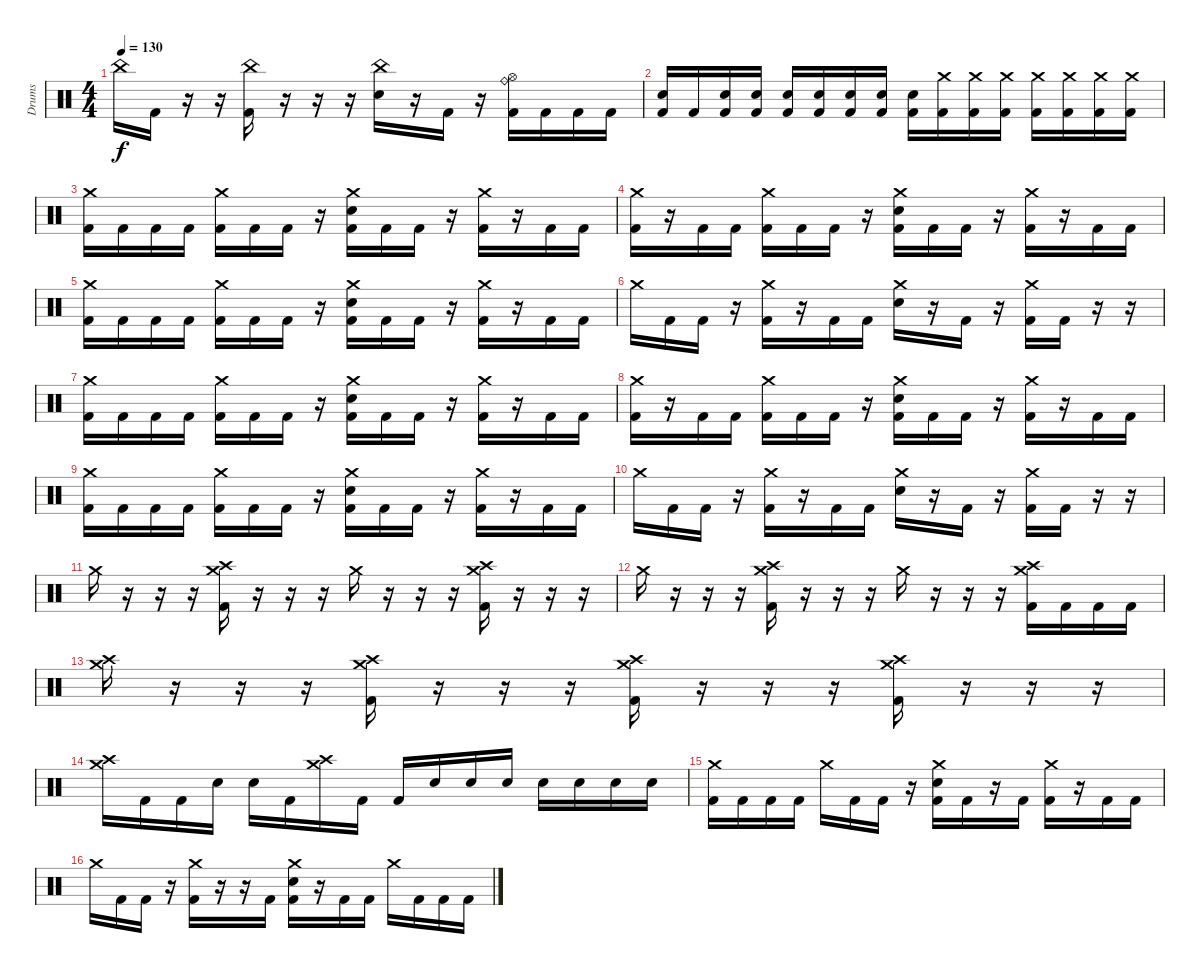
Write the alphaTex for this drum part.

\track ("Drums" "Drums") {instrument percussion}
\staff {score}
\articulation defaults
\ts (4 4)
\tempo 130
\clef neutral
\ks c "China (hit)".16{dy f} "Kick (hit) 2".16
r.16 r.16 ("China (hit)" "Kick (hit) 2").16 r.16 r.16 r.16 ("China (hit)" "Electric Snare (hit)").16 r.16 "Kick (hit) 2".16 r.16 ("Ride (bell)" "Hi-Hat (open)" "Kick (hit) 2").16 "Kick (hit) 2".16 "Kick (hit) 2".16 "Kick (hit) 2".16 |
("Electric Snare (hit)" "Kick (hit) 2").16 "Kick (hit) 2".16 ("Electric Snare (hit)" "Kick (hit) 2").16 ("Electric Snare (hit)" "Kick (hit) 2").16 ("Electric Snare (hit)" "Kick (hit) 2").16 ("Electric Snare (hit)" "Kick (hit) 2").16 ("Electric Snare (hit)" "Kick (hit) 2").16 ("Electric Snare (hit)" "Kick (hit) 2").16 ("Electric Snare (hit)" "Kick (hit) 2").16 ("Crash medium (hit)" "Kick (hit) 2").16 ("Crash medium (hit)" "Kick (hit) 2").16 ("Crash medium (hit)" "Kick (hit) 2").16 ("Crash medium (hit)" "Kick (hit) 2").16 ("Crash medium (hit)" "Kick (hit) 2").16 ("Crash medium (hit)" "Kick (hit) 2").16 ("Crash medium (hit)" "Kick (hit) 2").16 |
("Crash medium (hit)" "Kick (hit) 2").16 "Kick (hit) 2".16 "Kick (hit) 2".16 "Kick (hit) 2".16 ("Crash medium (hit)" "Kick (hit) 2").16 "Kick (hit) 2".16 "Kick (hit) 2".16 r.16 ("Crash medium (hit)" "Electric Snare (hit)" "Kick (hit) 2").16 "Kick (hit) 2".16 "Kick (hit) 2".16 r.16 ("Crash medium (hit)" "Kick (hit) 2").16 r.16 "Kick (hit) 2".16 "Kick (hit) 2".16 |
("Crash medium (hit)" "Kick (hit) 2").16 r.16 "Kick (hit) 2".16 "Kick (hit) 2".16 ("Crash medium (hit)" "Kick (hit) 2").16 "Kick (hit) 2".16 "Kick (hit) 2".16 r.16 ("Crash medium (hit)" "Electric Snare (hit)" "Kick (hit) 2").16 "Kick (hit) 2".16 "Kick (hit) 2".16 r.16 ("Crash medium (hit)" "Kick (hit) 2").16 r.16 "Kick (hit) 2".16 "Kick (hit) 2".16 |
("Crash medium (hit)" "Kick (hit) 2").16 "Kick (hit) 2".16 "Kick (hit) 2".16 "Kick (hit) 2".16 ("Crash medium (hit)" "Kick (hit) 2").16 "Kick (hit) 2".16 "Kick (hit) 2".16 r.16 ("Crash medium (hit)" "Electric Snare (hit)" "Kick (hit) 2").16 "Kick (hit) 2".16 "Kick (hit) 2".16 r.16 ("Crash medium (hit)" "Kick (hit) 2").16 r.16 "Kick (hit) 2".16 "Kick (hit) 2".16 |
"Crash medium (hit)".16 "Kick (hit) 2".16 "Kick (hit) 2".16 r.16 ("Crash medium (hit)" "Kick (hit) 2").16 r.16 "Kick (hit) 2".16 "Kick (hit) 2".16 ("Crash medium (hit)" "Electric Snare (hit)").16 r.16 "Kick (hit) 2".16 r.16 ("Crash medium (hit)" "Kick (hit) 2").16 "Kick (hit) 2".16 r.16 r.16 |
("Crash medium (hit)" "Kick (hit) 2").16 "Kick (hit) 2".16 "Kick (hit) 2".16 "Kick (hit) 2".16 ("Crash medium (hit)" "Kick (hit) 2").16 "Kick (hit) 2".16 "Kick (hit) 2".16 r.16 ("Crash medium (hit)" "Electric Snare (hit)" "Kick (hit) 2").16 "Kick (hit) 2".16 "Kick (hit) 2".16 r.16 ("Crash medium (hit)" "Kick (hit) 2").16 r.16 "Kick (hit) 2".16 "Kick (hit) 2".16 |
("Crash medium (hit)" "Kick (hit) 2").16 r.16 "Kick (hit) 2".16 "Kick (hit) 2".16 ("Crash medium (hit)" "Kick (hit) 2").16 "Kick (hit) 2".16 "Kick (hit) 2".16 r.16 ("Crash medium (hit)" "Electric Snare (hit)" "Kick (hit) 2").16 "Kick (hit) 2".16 "Kick (hit) 2".16 r.16 ("Crash medium (hit)" "Kick (hit) 2").16 r.16 "Kick (hit) 2".16 "Kick (hit) 2".16 |
("Crash medium (hit)" "Kick (hit) 2").16 "Kick (hit) 2".16 "Kick (hit) 2".16 "Kick (hit) 2".16 ("Crash medium (hit)" "Kick (hit) 2").16 "Kick (hit) 2".16 "Kick (hit) 2".16 r.16 ("Crash medium (hit)" "Electric Snare (hit)" "Kick (hit) 2").16 "Kick (hit) 2".16 "Kick (hit) 2".16 r.16 ("Crash medium (hit)" "Kick (hit) 2").16 r.16 "Kick (hit) 2".16 "Kick (hit) 2".16 |
"Crash medium (hit)".16 "Kick (hit) 2".16 "Kick (hit) 2".16 r.16 ("Crash medium (hit)" "Kick (hit) 2").16 r.16 "Kick (hit) 2".16 "Kick (hit) 2".16 ("Crash medium (hit)" "Electric Snare (hit)").16 r.16 "Kick (hit) 2".16 r.16 ("Crash medium (hit)" "Kick (hit) 2").16 "Kick (hit) 2".16 r.16 r.16 |
"Crash medium (hit)".16 r.16 r.16 r.16 ("Crash medium (hit)" "Crash high (hit)" "Kick (hit) 2").16 r.16 r.16 r.16 "Crash medium (hit)".16 r.16 r.16 r.16 ("Crash medium (hit)" "Crash high (hit)" "Kick (hit) 2").16 r.16 r.16 r.16 |
"Crash medium (hit)".16 r.16 r.16 r.16 ("Crash medium (hit)" "Crash high (hit)" "Kick (hit) 2").16 r.16 r.16 r.16 "Crash medium (hit)".16 r.16 r.16 r.16 ("Crash medium (hit)" "Crash high (hit)" "Kick (hit) 2").16 "Kick (hit) 2".16 "Kick (hit) 2".16 "Kick (hit) 2".16 |
("Crash medium (hit)" "Crash high (hit)").16 r.16 r.16 r.16 ("Crash medium (hit)" "Crash high (hit)" "Kick (hit) 2").16 r.16 r.16 r.16 ("Crash medium (hit)" "Crash high (hit)" "Kick (hit) 2").16 r.16 r.16 r.16 ("Crash medium (hit)" "Crash high (hit)" "Kick (hit) 2").16 r.16 r.16 r.16 |
("Crash medium (hit)" "Crash high (hit)").16 "Kick (hit) 2".16 "Kick (hit) 2".16 "Electric Snare (hit)".16 "Electric Snare (hit)".16 "Kick (hit) 2".16 ("Crash medium (hit)" "Crash high (hit)").16 "Kick (hit) 2".16 "Kick (hit) 2".16 "Electric Snare (hit)".16 "Electric Snare (hit)".16 "Electric Snare (hit)".16 "Electric Snare (hit)".16 "Electric Snare (hit)".16 "Electric Snare (hit)".16 "Electric Snare (hit)".16 |
("Crash medium (hit)" "Kick (hit) 2").16 "Kick (hit) 2".16 "Kick (hit) 2".16 "Kick (hit) 2".16 "Crash medium (hit)".16 "Kick (hit) 2".16 "Kick (hit) 2".16 r.16 ("Crash medium (hit)" "Electric Snare (hit)" "Kick (hit) 2").16 "Kick (hit) 2".16 r.16 "Kick (hit) 2".16 ("Crash medium (hit)" "Kick (hit) 2").16 r.16 "Kick (hit) 2".16 "Kick (hit) 2".16 |
"Crash medium (hit)".16 "Kick (hit) 2".16 "Kick (hit) 2".16 r.16 ("Crash medium (hit)" "Kick (hit) 2").16 r.16 r.16 "Kick (hit) 2".16 ("Crash medium (hit)" "Electric Snare (hit)" "Kick (hit) 2").16 r.16 "Kick (hit) 2".16 "Kick (hit) 2".16 "Crash medium (hit)".16 "Kick (hit) 2".16 "Kick (hit) 2".16 "Kick (hit) 2".16
